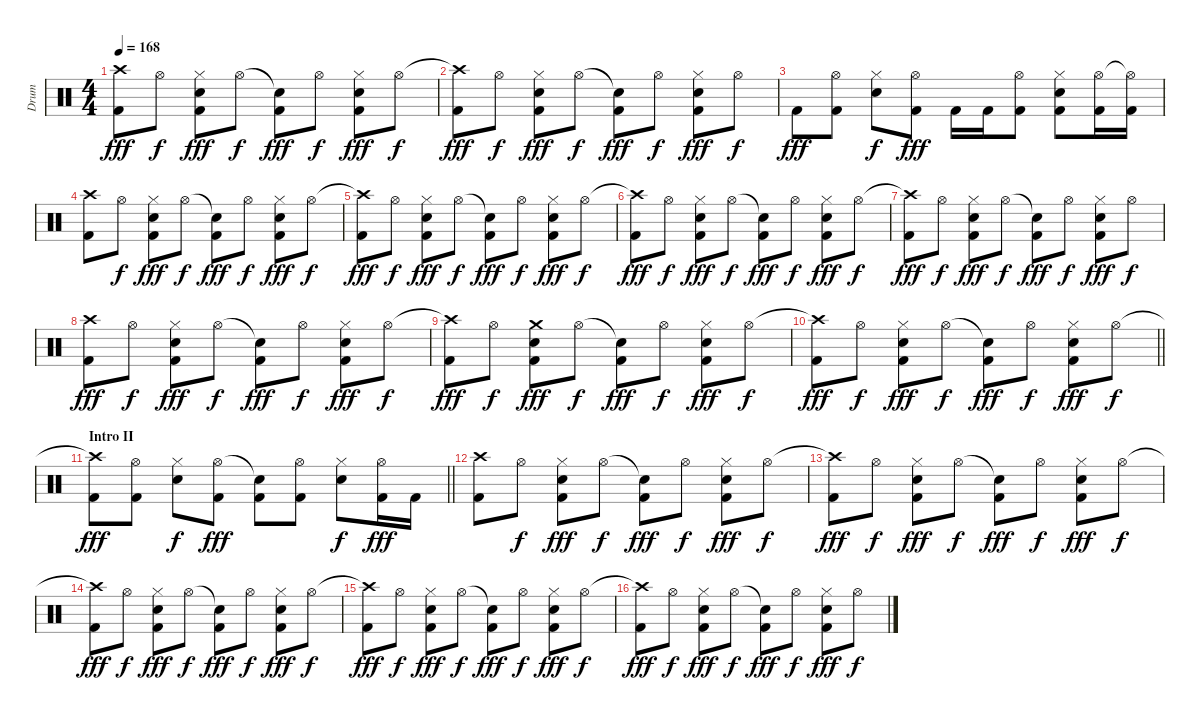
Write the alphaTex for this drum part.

\track ("Drum" "Drum") {instrument percussion}
\staff {score}
\articulation defaults
\ts (4 4)
\tempo 168
\clef neutral
\ks c
("Crash high (hit)"{t} "Kick (hit) 2").8{dy fff} "Hi-Hat (open)".8{dy f} ("Hi-Hat (closed)" "Snare (hit) 2" "Kick (hit) 2").8{dy fff} "Hi-Hat (open)".8{dy f} ("Snare (hit)"{t} "Kick (hit) 2").8{dy fff} "Hi-Hat (open)".8{dy f} ("Hi-Hat (closed)" "Snare (hit) 2" "Kick (hit) 2").8{dy fff} "Hi-Hat (open)".8{dy f} |
("Crash high (hit)"{t} "Kick (hit) 2").8{dy fff} "Hi-Hat (open)".8{dy f} ("Hi-Hat (closed)" "Snare (hit) 2" "Kick (hit) 2").8{dy fff} "Hi-Hat (open)".8{dy f} ("Snare (hit)"{t} "Kick (hit) 2").8{dy fff} "Hi-Hat (open)".8{dy f} ("Hi-Hat (closed)" "Snare (hit) 2" "Kick (hit) 2").8{dy fff} "Hi-Hat (open)".8{dy f} |
"Kick (hit) 2".8{dy fff} ("Hi-Hat (open)" "Kick (hit) 2").8 ("Hi-Hat (closed)" "Snare (hit) 2").8{dy f} ("Hi-Hat (open)" "Kick (hit) 2").8{dy fff} "Kick (hit) 2".16 "Kick (hit) 2".16 ("Hi-Hat (open)" "Kick (hit) 2").8 ("Hi-Hat (closed)" "Snare (hit) 2" "Kick (hit) 2").8 ("Hi-Hat (open)" "Kick (hit) 2").16 ("Hi-Hat (open)"{t} "Kick (hit) 2").16 |
("Crash high (hit)" "Kick (hit) 2").8 "Hi-Hat (open)".8{dy f} ("Hi-Hat (closed)" "Snare (hit) 2" "Kick (hit) 2").8{dy fff} "Hi-Hat (open)".8{dy f} ("Snare (hit)"{t} "Kick (hit) 2").8{dy fff} "Hi-Hat (open)".8{dy f} ("Hi-Hat (closed)" "Snare (hit) 2" "Kick (hit) 2").8{dy fff} "Hi-Hat (open)".8{dy f} |
("Crash high (hit)"{t} "Kick (hit) 2").8{dy fff} "Hi-Hat (open)".8{dy f} ("Hi-Hat (closed)" "Snare (hit) 2" "Kick (hit) 2").8{dy fff} "Hi-Hat (open)".8{dy f} ("Snare (hit)"{t} "Kick (hit) 2").8{dy fff} "Hi-Hat (open)".8{dy f} ("Hi-Hat (closed)" "Snare (hit) 2" "Kick (hit) 2").8{dy fff} "Hi-Hat (open)".8{dy f} |
("Crash high (hit)"{t} "Kick (hit) 2").8{dy fff} "Hi-Hat (open)".8{dy f} ("Hi-Hat (closed)" "Snare (hit) 2" "Kick (hit) 2").8{dy fff} "Hi-Hat (open)".8{dy f} ("Snare (hit)"{t} "Kick (hit) 2").8{dy fff} "Hi-Hat (open)".8{dy f} ("Hi-Hat (closed)" "Snare (hit) 2" "Kick (hit) 2").8{dy fff} "Hi-Hat (open)".8{dy f} |
("Crash high (hit)"{t} "Kick (hit) 2").8{dy fff} "Hi-Hat (open)".8{dy f} ("Hi-Hat (closed)" "Snare (hit) 2" "Kick (hit) 2").8{dy fff} "Hi-Hat (open)".8{dy f} ("Snare (hit)"{t} "Kick (hit) 2").8{dy fff} "Hi-Hat (open)".8{dy f} ("Hi-Hat (closed)" "Snare (hit) 2" "Kick (hit) 2").8{dy fff} "Hi-Hat (open)".8{dy f} |
("Crash high (hit)" "Kick (hit) 2").8{dy fff} "Hi-Hat (open)".8{dy f} ("Hi-Hat (closed)" "Snare (hit) 2" "Kick (hit) 2").8{dy fff} "Hi-Hat (open)".8{dy f} ("Snare (hit)"{t} "Kick (hit) 2").8{dy fff} "Hi-Hat (open)".8{dy f} ("Hi-Hat (closed)" "Snare (hit) 2" "Kick (hit) 2").8{dy fff} "Hi-Hat (open)".8{dy f} |
("Crash high (hit)"{t} "Kick (hit) 2").8{dy fff} "Hi-Hat (open)".8{dy f} ("Crash medium (hit)" "Snare (hit) 2" "Kick (hit) 2").8{dy fff} "Hi-Hat (open)".8{dy f} ("Snare (hit)"{t} "Kick (hit) 2").8{dy fff} "Hi-Hat (open)".8{dy f} ("Hi-Hat (closed)" "Snare (hit) 2" "Kick (hit) 2").8{dy fff} "Hi-Hat (open)".8{dy f} |
\barLineRight lightlight
("Crash high (hit)"{t} "Kick (hit) 2").8{dy fff} "Hi-Hat (open)".8{dy f} ("Hi-Hat (closed)" "Snare (hit) 2" "Kick (hit) 2").8{dy fff} "Hi-Hat (open)".8{dy f} ("Snare (hit)"{t} "Kick (hit) 2").8{dy fff} "Hi-Hat (open)".8{dy f} ("Hi-Hat (closed)" "Snare (hit) 2" "Kick (hit) 2").8{dy fff} "Hi-Hat (open)".8{dy f} |
\section ("" "Intro II")
\barLineRight lightlight
("Crash high (hit)"{t} "Kick (hit) 2").8{dy fff} ("Hi-Hat (open)" "Kick (hit) 2").8 ("Hi-Hat (closed)" "Snare (hit) 2").8{dy f} ("Hi-Hat (open)" "Kick (hit) 2").8{dy fff} ("Snare (hit)"{t} "Kick (hit) 2").8 ("Hi-Hat (open)" "Kick (hit) 2").8 ("Hi-Hat (closed)" "Snare (hit) 2").8{dy f} ("Hi-Hat (open)" "Kick (hit) 2").16{dy fff} "Kick (hit) 2".16 |
("Crash high (hit)" "Kick (hit) 2").8 "Hi-Hat (open)".8{dy f} ("Hi-Hat (closed)" "Snare (hit) 2" "Kick (hit) 2").8{dy fff} "Hi-Hat (open)".8{dy f} ("Snare (hit)"{t} "Kick (hit) 2").8{dy fff} "Hi-Hat (open)".8{dy f} ("Hi-Hat (closed)" "Snare (hit) 2" "Kick (hit) 2").8{dy fff} "Hi-Hat (open)".8{dy f} |
("Crash high (hit)"{t} "Kick (hit) 2").8{dy fff} "Hi-Hat (open)".8{dy f} ("Hi-Hat (closed)" "Snare (hit) 2" "Kick (hit) 2").8{dy fff} "Hi-Hat (open)".8{dy f} ("Snare (hit)"{t} "Kick (hit) 2").8{dy fff} "Hi-Hat (open)".8{dy f} ("Hi-Hat (closed)" "Snare (hit) 2" "Kick (hit) 2").8{dy fff} "Hi-Hat (open)".8{dy f} |
("Crash high (hit)"{t} "Kick (hit) 2").8{dy fff} "Hi-Hat (open)".8{dy f} ("Hi-Hat (closed)" "Snare (hit) 2" "Kick (hit) 2").8{dy fff} "Hi-Hat (open)".8{dy f} ("Snare (hit)"{t} "Kick (hit) 2").8{dy fff} "Hi-Hat (open)".8{dy f} ("Hi-Hat (closed)" "Snare (hit) 2" "Kick (hit) 2").8{dy fff} "Hi-Hat (open)".8{dy f} |
("Crash high (hit)"{t} "Kick (hit) 2").8{dy fff} "Hi-Hat (open)".8{dy f} ("Hi-Hat (closed)" "Snare (hit) 2" "Kick (hit) 2").8{dy fff} "Hi-Hat (open)".8{dy f} ("Snare (hit)"{t} "Kick (hit) 2").8{dy fff} "Hi-Hat (open)".8{dy f} ("Hi-Hat (closed)" "Snare (hit) 2" "Kick (hit) 2").8{dy fff} "Hi-Hat (open)".8{dy f} |
("Crash high (hit)"{t} "Kick (hit) 2").8{dy fff} "Hi-Hat (open)".8{dy f} ("Hi-Hat (closed)" "Snare (hit) 2" "Kick (hit) 2").8{dy fff} "Hi-Hat (open)".8{dy f} ("Snare (hit)"{t} "Kick (hit) 2").8{dy fff} "Hi-Hat (open)".8{dy f} ("Hi-Hat (closed)" "Snare (hit) 2" "Kick (hit) 2").8{dy fff} "Hi-Hat (open)".8{dy f}
